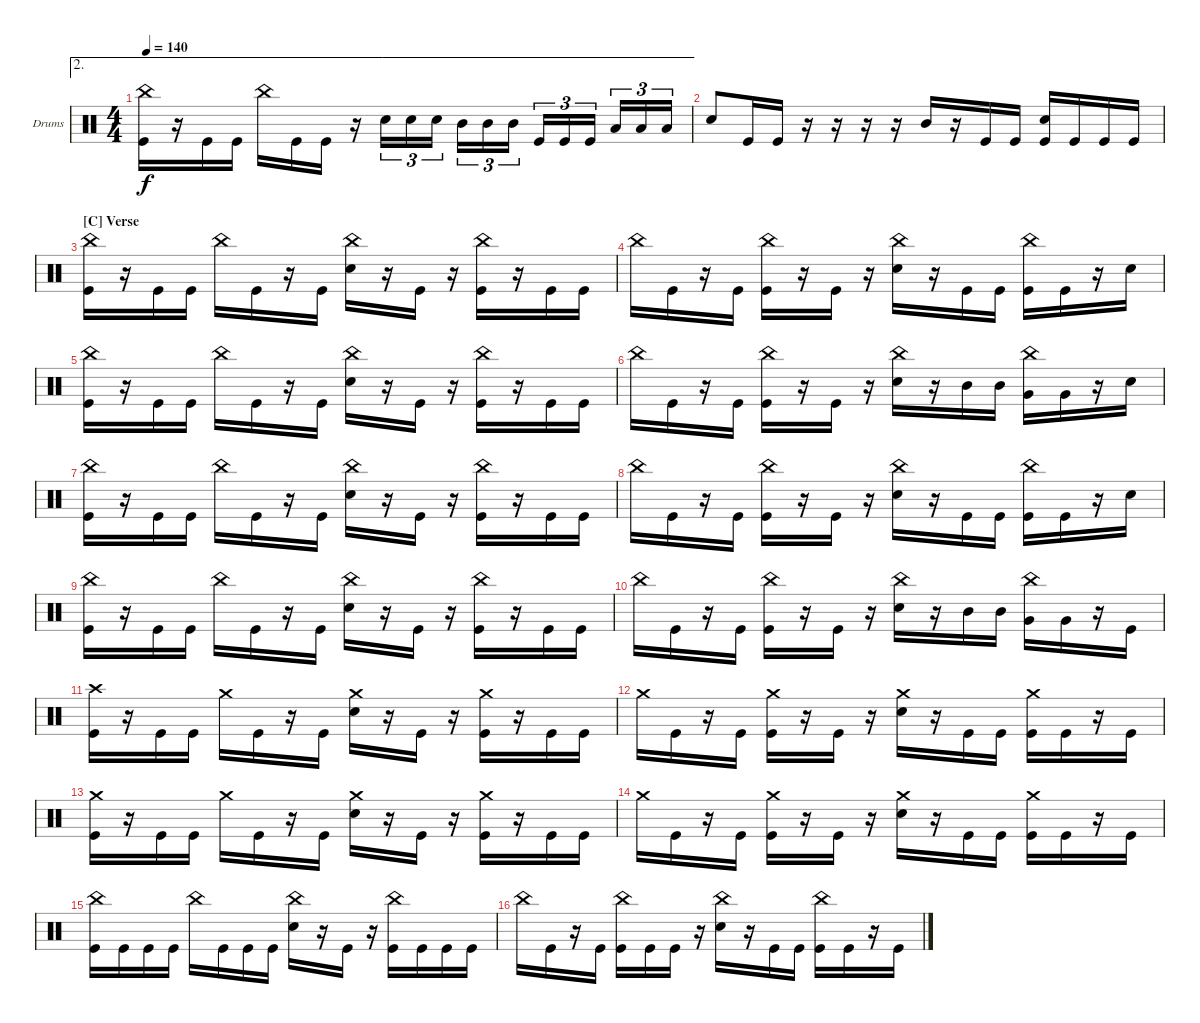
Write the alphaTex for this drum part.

\bracketExtendMode groupsimilarinstruments
\firstSystemTrackNameOrientation horizontal
\otherSystemsTrackNameOrientation horizontal
\track ("Drumkit" "Drums") {instrument percussion}
\staff {score}
\articulation defaults
\ae 2
\ts (4 4)
\tempo 140
\clef neutral
\ks c
("Kick (hit)" "China (hit)").16{dy f} r.16 "Kick (hit)".16 "Kick (hit)".16 "China (hit)".16 "Kick (hit)".16 "Kick (hit)".16 r.16 "Snare (hit) 2".16{tu (3 2)} "Snare (hit) 2".16{tu (3 2)} "Snare (hit) 2".16{tu (3 2)} "Mid Tom (hit)".16{tu (3 2)} "Mid Tom (hit)".16{tu (3 2)} "Mid Tom (hit)".16{tu (3 2)} "Kick (hit)".16{tu (3 2)} "Kick (hit)".16{tu (3 2)} "Kick (hit)".16{tu (3 2)} "Low Tom (hit)".16{tu (3 2)} "Low Tom (hit)".16{tu (3 2)} "Low Tom (hit)".16{tu (3 2)} |
"Snare (hit) 2".8 "Kick (hit)".16 "Kick (hit)".16 r.16 r.16 r.16 r.16 "Mid Tom (hit)".16 r.16 "Kick (hit)".16 "Kick (hit)".16 ("Snare (hit) 2" "Kick (hit)").16 "Kick (hit)".16 "Kick (hit)".16 "Kick (hit)".16 |
\section ("C" "Verse")
("Kick (hit)" "China (hit)").16 r.16 "Kick (hit)".16 "Kick (hit)".16 "China (hit)".16 "Kick (hit)".16 r.16 "Kick (hit)".16 ("Snare (hit) 2" "China (hit)").16 r.16 "Kick (hit)".16 r.16 ("Kick (hit)" "China (hit)").16 r.16 "Kick (hit)".16 "Kick (hit)".16 |
"China (hit)".16 "Kick (hit)".16 r.16 "Kick (hit)".16 ("Kick (hit)" "China (hit)").16 r.16 "Kick (hit)".16 r.16 ("China (hit)" "Snare (hit) 2").16 r.16 "Kick (hit)".16 "Kick (hit)".16 ("China (hit)" "Kick (hit)").16 "Kick (hit)".16 r.16 "Snare (hit) 2".16 |
("Kick (hit)" "China (hit)").16 r.16 "Kick (hit)".16 "Kick (hit)".16 "China (hit)".16 "Kick (hit)".16 r.16 "Kick (hit)".16 ("Snare (hit) 2" "China (hit)").16 r.16 "Kick (hit)".16 r.16 ("Kick (hit)" "China (hit)").16 r.16 "Kick (hit)".16 "Kick (hit)".16 |
"China (hit)".16 "Kick (hit)".16 r.16 "Kick (hit)".16 ("Kick (hit)" "China (hit)").16 r.16 "Kick (hit)".16 r.16 ("China (hit)" "Snare (hit) 2").16 r.16 "Mid Tom (hit)".16 "Mid Tom (hit)".16 ("China (hit)" "Very Low Tom (hit)").16 "Very Low Tom (hit)".16 r.16 "Snare (hit) 2".16 |
("Kick (hit)" "China (hit)").16 r.16 "Kick (hit)".16 "Kick (hit)".16 "China (hit)".16 "Kick (hit)".16 r.16 "Kick (hit)".16 ("Snare (hit) 2" "China (hit)").16 r.16 "Kick (hit)".16 r.16 ("Kick (hit)" "China (hit)").16 r.16 "Kick (hit)".16 "Kick (hit)".16 |
"China (hit)".16 "Kick (hit)".16 r.16 "Kick (hit)".16 ("Kick (hit)" "China (hit)").16 r.16 "Kick (hit)".16 r.16 ("China (hit)" "Snare (hit) 2").16 r.16 "Kick (hit)".16 "Kick (hit)".16 ("China (hit)" "Kick (hit)").16 "Kick (hit)".16 r.16 "Snare (hit) 2".16 |
("Kick (hit)" "China (hit)").16 r.16 "Kick (hit)".16 "Kick (hit)".16 "China (hit)".16 "Kick (hit)".16 r.16 "Kick (hit)".16 ("Snare (hit) 2" "China (hit)").16 r.16 "Kick (hit)".16 r.16 ("Kick (hit)" "China (hit)").16 r.16 "Kick (hit)".16 "Kick (hit)".16 |
"China (hit)".16 "Kick (hit)".16 r.16 "Kick (hit)".16 ("Kick (hit)" "China (hit)").16 r.16 "Kick (hit)".16 r.16 ("China (hit)" "Snare (hit) 2").16 r.16 "Mid Tom (hit)".16 "Mid Tom (hit)".16 ("China (hit)" "Very Low Tom (hit)").16 "Very Low Tom (hit)".16 r.16 "Kick (hit)".16 |
("Kick (hit)" "Crash high (hit)").16 r.16 "Kick (hit)".16 "Kick (hit)".16 "Crash medium (hit)".16 "Kick (hit)".16 r.16 "Kick (hit)".16 ("Snare (hit) 2" "Crash medium (hit)").16 r.16 "Kick (hit)".16 r.16 ("Kick (hit)" "Crash medium (hit)").16 r.16 "Kick (hit)".16 "Kick (hit)".16 |
"Crash medium (hit)".16 "Kick (hit)".16 r.16 "Kick (hit)".16 ("Kick (hit)" "Crash medium (hit)").16 r.16 "Kick (hit)".16 r.16 ("Snare (hit) 2" "Crash medium (hit)").16 r.16 "Kick (hit)".16 "Kick (hit)".16 ("Kick (hit)" "Crash medium (hit)").16 "Kick (hit)".16 r.16 "Kick (hit)".16 |
("Kick (hit)" "Crash medium (hit)").16 r.16 "Kick (hit)".16 "Kick (hit)".16 "Crash medium (hit)".16 "Kick (hit)".16 r.16 "Kick (hit)".16 ("Snare (hit) 2" "Crash medium (hit)").16 r.16 "Kick (hit)".16 r.16 ("Kick (hit)" "Crash medium (hit)").16 r.16 "Kick (hit)".16 "Kick (hit)".16 |
"Crash medium (hit)".16 "Kick (hit)".16 r.16 "Kick (hit)".16 ("Kick (hit)" "Crash medium (hit)").16 r.16 "Kick (hit)".16 r.16 ("Snare (hit) 2" "Crash medium (hit)").16 r.16 "Kick (hit)".16 "Kick (hit)".16 ("Kick (hit)" "Crash medium (hit)").16 "Kick (hit)".16 r.16 "Kick (hit)".16 |
("Kick (hit)" "China (hit)").16 "Kick (hit)".16 "Kick (hit)".16 "Kick (hit)".16 "China (hit)".16 "Kick (hit)".16 "Kick (hit)".16 "Kick (hit)".16 ("Snare (hit) 2" "China (hit)").16 r.16 "Kick (hit)".16 r.16 ("Kick (hit)" "China (hit)").16 "Kick (hit)".16 "Kick (hit)".16 "Kick (hit)".16 |
"China (hit)".16 "Kick (hit)".16 r.16 "Kick (hit)".16 ("Kick (hit)" "China (hit)").16 "Kick (hit)".16 "Kick (hit)".16 r.16 ("China (hit)" "Snare (hit) 2").16 r.16 "Kick (hit)".16 "Kick (hit)".16 ("China (hit)" "Kick (hit)").16 "Kick (hit)".16 r.16 "Kick (hit)".16
